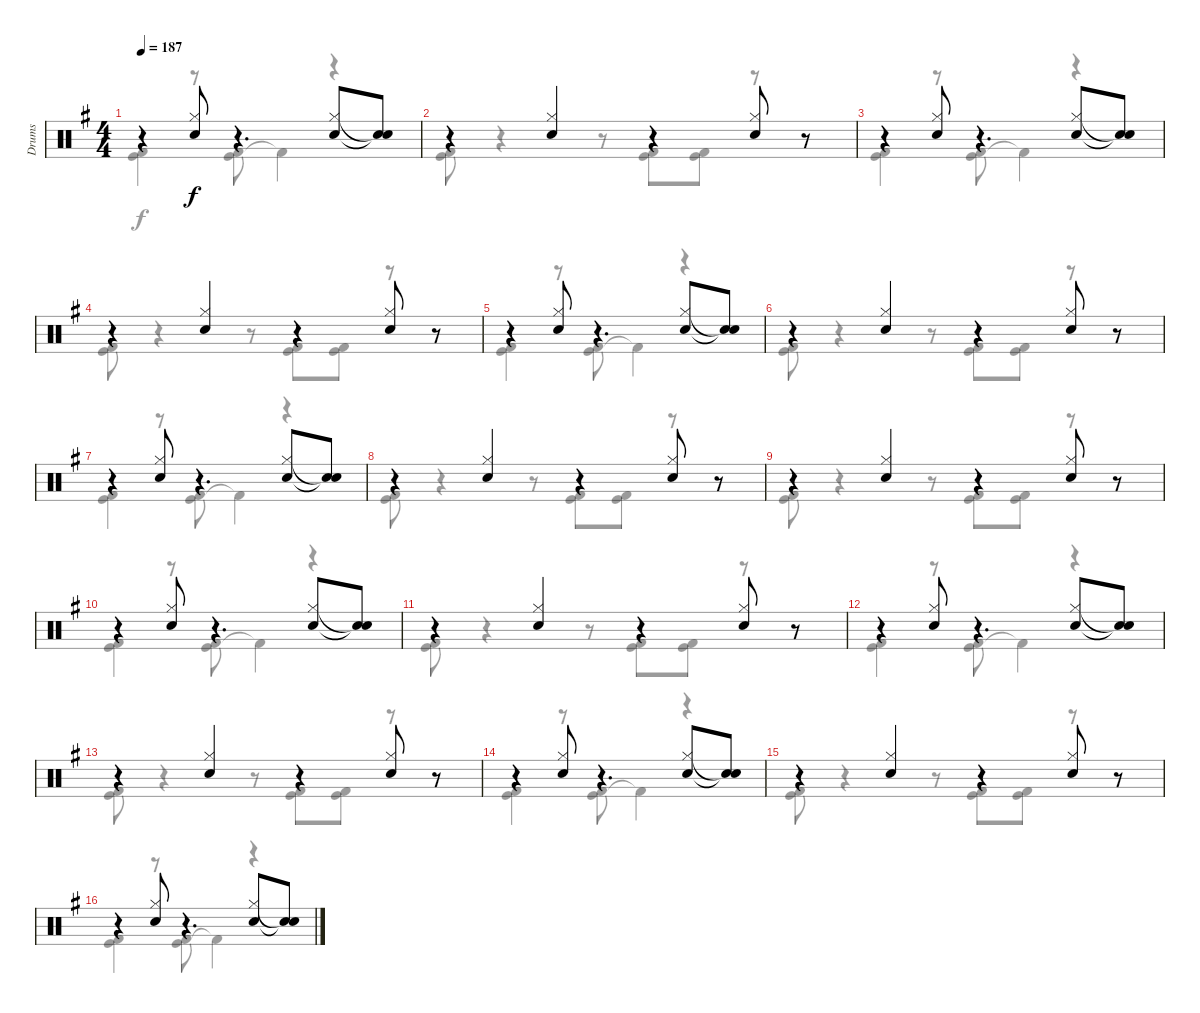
\track ("Drums" "Drums") {instrument percussion}
\staff {score}
\articulation defaults
\voice
\ts (4 4)
\tempo 187
\clef neutral
\ks g
r.4{dy f} ("Hi-Hat (closed)" "Electric Snare (hit)").8 r.4{d} ("Hi-Hat (closed)" "Electric Snare (hit)").8 ("Snare (hit)"{t} "Snare (hit)"{t}).8 |
r.4 ("Hi-Hat (closed)" "Electric Snare (hit)").4 r.4 ("Hi-Hat (closed)" "Electric Snare (hit)").8 r.8 |
r.4 ("Hi-Hat (closed)" "Electric Snare (hit)").8 r.4{d} ("Hi-Hat (closed)" "Electric Snare (hit)").8 ("Snare (hit)"{t} "Snare (hit)"{t}).8 |
r.4 ("Hi-Hat (closed)" "Electric Snare (hit)").4 r.4 ("Hi-Hat (closed)" "Electric Snare (hit)").8 r.8 |
r.4 ("Hi-Hat (closed)" "Electric Snare (hit)").8 r.4{d} ("Hi-Hat (closed)" "Electric Snare (hit)").8 ("Snare (hit)"{t} "Snare (hit)"{t}).8 |
r.4 ("Hi-Hat (closed)" "Electric Snare (hit)").4 r.4 ("Hi-Hat (closed)" "Electric Snare (hit)").8 r.8 |
r.4 ("Hi-Hat (closed)" "Electric Snare (hit)").8 r.4{d} ("Hi-Hat (closed)" "Electric Snare (hit)").8 ("Snare (hit)"{t} "Snare (hit)"{t}).8 |
r.4 ("Hi-Hat (closed)" "Electric Snare (hit)").4 r.4 ("Hi-Hat (closed)" "Electric Snare (hit)").8 r.8 |
r.4 ("Hi-Hat (closed)" "Electric Snare (hit)").4 r.4 ("Hi-Hat (closed)" "Electric Snare (hit)").8 r.8 |
r.4 ("Hi-Hat (closed)" "Electric Snare (hit)").8 r.4{d} ("Hi-Hat (closed)" "Electric Snare (hit)").8 ("Snare (hit)"{t} "Snare (hit)"{t}).8 |
r.4 ("Hi-Hat (closed)" "Electric Snare (hit)").4 r.4 ("Hi-Hat (closed)" "Electric Snare (hit)").8 r.8 |
r.4 ("Hi-Hat (closed)" "Electric Snare (hit)").8 r.4{d} ("Hi-Hat (closed)" "Electric Snare (hit)").8 ("Snare (hit)"{t} "Snare (hit)"{t}).8 |
r.4 ("Hi-Hat (closed)" "Electric Snare (hit)").4 r.4 ("Hi-Hat (closed)" "Electric Snare (hit)").8 r.8 |
r.4 ("Hi-Hat (closed)" "Electric Snare (hit)").8 r.4{d} ("Hi-Hat (closed)" "Electric Snare (hit)").8 ("Snare (hit)"{t} "Snare (hit)"{t}).8 |
r.4 ("Hi-Hat (closed)" "Electric Snare (hit)").4 r.4 ("Hi-Hat (closed)" "Electric Snare (hit)").8 r.8 |
r.4 ("Hi-Hat (closed)" "Electric Snare (hit)").8 r.4{d} ("Hi-Hat (closed)" "Electric Snare (hit)").8 ("Snare (hit)"{t} "Snare (hit)"{t}).8
\voice
\clef neutral
\ottava regular
\simile none
\ks g
("Kick (hit)" "Kick (hit) 2").4{dy f} r.8 ("Kick (hit)" "Kick (hit) 2").8 "Kick (hit) 2"{t}.4 r.4 |
("Kick (hit)" "Kick (hit) 2").8 r.4 r.8 ("Kick (hit)" "Kick (hit) 2").8 ("Kick (hit)" "Kick (hit) 2").8 r.8 r.8 |
("Kick (hit)" "Kick (hit) 2").4 r.8 ("Kick (hit)" "Kick (hit) 2").8 "Kick (hit) 2"{t}.4 r.4 |
("Kick (hit)" "Kick (hit) 2").8 r.4 r.8 ("Kick (hit)" "Kick (hit) 2").8 ("Kick (hit)" "Kick (hit) 2").8 r.8 r.8 |
("Kick (hit)" "Kick (hit) 2").4 r.8 ("Kick (hit)" "Kick (hit) 2").8 "Kick (hit) 2"{t}.4 r.4 |
("Kick (hit)" "Kick (hit) 2").8 r.4 r.8 ("Kick (hit)" "Kick (hit) 2").8 ("Kick (hit)" "Kick (hit) 2").8 r.8 r.8 |
("Kick (hit)" "Kick (hit) 2").4 r.8 ("Kick (hit)" "Kick (hit) 2").8 "Kick (hit) 2"{t}.4 r.4 |
("Kick (hit)" "Kick (hit) 2").8 r.4 r.8 ("Kick (hit)" "Kick (hit) 2").8 ("Kick (hit)" "Kick (hit) 2").8 r.8 r.8 |
("Kick (hit)" "Kick (hit) 2").8 r.4 r.8 ("Kick (hit)" "Kick (hit) 2").8 ("Kick (hit)" "Kick (hit) 2").8 r.8 r.8 |
("Kick (hit)" "Kick (hit) 2").4 r.8 ("Kick (hit)" "Kick (hit) 2").8 "Kick (hit) 2"{t}.4 r.4 |
("Kick (hit)" "Kick (hit) 2").8 r.4 r.8 ("Kick (hit)" "Kick (hit) 2").8 ("Kick (hit)" "Kick (hit) 2").8 r.8 r.8 |
("Kick (hit)" "Kick (hit) 2").4 r.8 ("Kick (hit)" "Kick (hit) 2").8 "Kick (hit) 2"{t}.4 r.4 |
("Kick (hit)" "Kick (hit) 2").8 r.4 r.8 ("Kick (hit)" "Kick (hit) 2").8 ("Kick (hit)" "Kick (hit) 2").8 r.8 r.8 |
("Kick (hit)" "Kick (hit) 2").4 r.8 ("Kick (hit)" "Kick (hit) 2").8 "Kick (hit) 2"{t}.4 r.4 |
("Kick (hit)" "Kick (hit) 2").8 r.4 r.8 ("Kick (hit)" "Kick (hit) 2").8 ("Kick (hit)" "Kick (hit) 2").8 r.8 r.8 |
("Kick (hit)" "Kick (hit) 2").4 r.8 ("Kick (hit)" "Kick (hit) 2").8 "Kick (hit) 2"{t}.4 r.4
